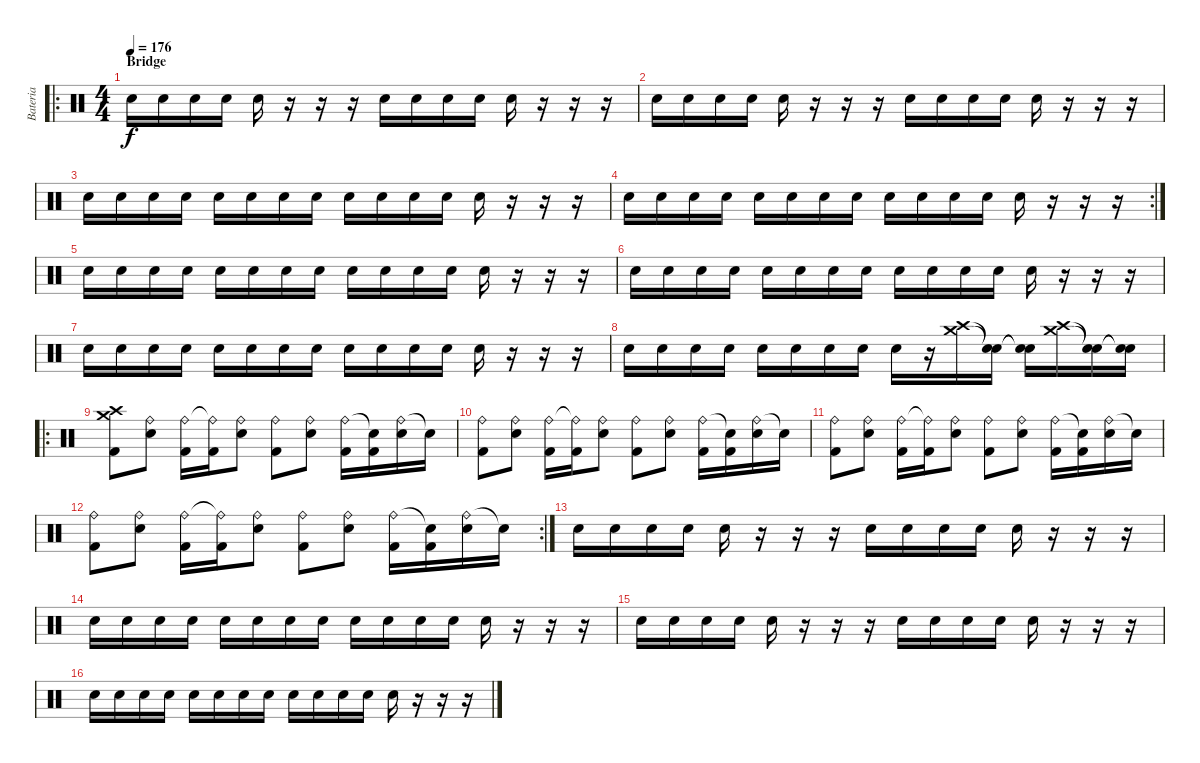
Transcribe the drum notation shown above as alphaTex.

\track ("Bateria" "Bateria") {instrument percussion}
\staff {score}
\articulation defaults
\ro
\ts (4 4)
\section ("" "Bridge")
\tempo 176
\clef neutral
\ks c "Electric Snare (hit)".16{dy f} "Electric Snare (hit)".16 "Electric Snare (hit)".16 "Electric Snare (hit)".16 "Electric Snare (hit)".16
r.16 r.16 r.16 "Electric Snare (hit)".16 "Electric Snare (hit)".16 "Electric Snare (hit)".16 "Electric Snare (hit)".16 "Electric Snare (hit)".16 r.16 r.16 r.16 |
"Electric Snare (hit)".16 "Electric Snare (hit)".16 "Electric Snare (hit)".16 "Electric Snare (hit)".16 "Electric Snare (hit)".16 r.16 r.16 r.16 "Electric Snare (hit)".16 "Electric Snare (hit)".16 "Electric Snare (hit)".16 "Electric Snare (hit)".16 "Electric Snare (hit)".16 r.16 r.16 r.16 |
"Electric Snare (hit)".16 "Electric Snare (hit)".16 "Electric Snare (hit)".16 "Electric Snare (hit)".16 "Electric Snare (hit)".16 "Electric Snare (hit)".16 "Electric Snare (hit)".16 "Electric Snare (hit)".16 "Electric Snare (hit)".16 "Electric Snare (hit)".16 "Electric Snare (hit)".16 "Electric Snare (hit)".16 "Electric Snare (hit)".16 r.16 r.16 r.16 |
\rc 2 "Electric Snare (hit)".16 "Electric Snare (hit)".16 "Electric Snare (hit)".16 "Electric Snare (hit)".16 "Electric Snare (hit)".16 "Electric Snare (hit)".16 "Electric Snare (hit)".16 "Electric Snare (hit)".16 "Electric Snare (hit)".16 "Electric Snare (hit)".16 "Electric Snare (hit)".16 "Electric Snare (hit)".16 "Electric Snare (hit)".16
r.16 r.16 r.16 |
"Electric Snare (hit)".16 "Electric Snare (hit)".16 "Electric Snare (hit)".16 "Electric Snare (hit)".16 "Electric Snare (hit)".16 "Electric Snare (hit)".16 "Electric Snare (hit)".16 "Electric Snare (hit)".16 "Electric Snare (hit)".16 "Electric Snare (hit)".16 "Electric Snare (hit)".16 "Electric Snare (hit)".16 "Electric Snare (hit)".16 r.16 r.16 r.16 |
"Electric Snare (hit)".16 "Electric Snare (hit)".16 "Electric Snare (hit)".16 "Electric Snare (hit)".16 "Electric Snare (hit)".16 "Electric Snare (hit)".16 "Electric Snare (hit)".16 "Electric Snare (hit)".16 "Electric Snare (hit)".16 "Electric Snare (hit)".16 "Electric Snare (hit)".16 "Electric Snare (hit)".16 "Electric Snare (hit)".16 r.16 r.16 r.16 |
"Electric Snare (hit)".16 "Electric Snare (hit)".16 "Electric Snare (hit)".16 "Electric Snare (hit)".16 "Electric Snare (hit)".16 "Electric Snare (hit)".16 "Electric Snare (hit)".16 "Electric Snare (hit)".16 "Electric Snare (hit)".16 "Electric Snare (hit)".16 "Electric Snare (hit)".16 "Electric Snare (hit)".16 "Electric Snare (hit)".16 r.16 r.16 r.16 |
"Electric Snare (hit)".16 "Electric Snare (hit)".16 "Electric Snare (hit)".16 "Electric Snare (hit)".16 "Electric Snare (hit)".16 "Electric Snare (hit)".16 "Electric Snare (hit)".16 "Electric Snare (hit)".16 "Electric Snare (hit)".16 r.16 ("Crash high (hit)" "Crash medium (hit)").16 ("Snare (hit)"{t} "Snare (hit)"{t}).16 ("Snare (hit)"{t} "Snare (hit)"{t}).16 ("Crash high (hit)" "Crash medium (hit)").16 ("Snare (hit)"{t} "Snare (hit)"{t}).16 ("Snare (hit)"{t} "Snare (hit)"{t}).16 |
\ro
("Crash medium (hit)" "Crash high (hit)" "Kick (hit) 2").8 ("Ride (bell)" "Electric Snare (hit)").8 ("Ride (bell)" "Kick (hit) 2").16 ("Ride (bell)"{t} "Kick (hit) 2").16 ("Ride (bell)" "Electric Snare (hit)").8 ("Ride (bell)" "Kick (hit) 2").8 ("Ride (bell)" "Electric Snare (hit)").8 ("Ride (bell)" "Kick (hit) 2").16 ("Snare (hit)"{t} "Kick (hit) 2").16 ("Ride (bell)" "Electric Snare (hit)").16 "Snare (hit)"{t}.16 |
("Ride (bell)" "Kick (hit) 2").8 ("Ride (bell)" "Electric Snare (hit)").8 ("Ride (bell)" "Kick (hit) 2").16 ("Ride (bell)"{t} "Kick (hit) 2").16 ("Ride (bell)" "Electric Snare (hit)").8 ("Ride (bell)" "Kick (hit) 2").8 ("Ride (bell)" "Electric Snare (hit)").8 ("Ride (bell)" "Kick (hit) 2").16 ("Snare (hit)"{t} "Kick (hit) 2").16 ("Ride (bell)" "Electric Snare (hit)").16 "Snare (hit)"{t}.16 |
("Ride (bell)" "Kick (hit) 2").8 ("Ride (bell)" "Electric Snare (hit)").8 ("Ride (bell)" "Kick (hit) 2").16 ("Ride (bell)"{t} "Kick (hit) 2").16 ("Ride (bell)" "Electric Snare (hit)").8 ("Ride (bell)" "Kick (hit) 2").8 ("Ride (bell)" "Electric Snare (hit)").8 ("Ride (bell)" "Kick (hit) 2").16 ("Snare (hit)"{t} "Kick (hit) 2").16 ("Ride (bell)" "Electric Snare (hit)").16 "Snare (hit)"{t}.16 |
\rc 2
("Ride (bell)" "Kick (hit) 2").8 ("Ride (bell)" "Electric Snare (hit)").8 ("Ride (bell)" "Kick (hit) 2").16 ("Ride (bell)"{t} "Kick (hit) 2").16 ("Ride (bell)" "Electric Snare (hit)").8 ("Ride (bell)" "Kick (hit) 2").8 ("Ride (bell)" "Electric Snare (hit)").8 ("Ride (bell)" "Kick (hit) 2").16 ("Snare (hit)"{t} "Kick (hit) 2").16 ("Ride (bell)" "Electric Snare (hit)").16 "Snare (hit)"{t}.16 |
"Electric Snare (hit)".16 "Electric Snare (hit)".16 "Electric Snare (hit)".16 "Electric Snare (hit)".16 "Electric Snare (hit)".16 r.16 r.16 r.16 "Electric Snare (hit)".16 "Electric Snare (hit)".16 "Electric Snare (hit)".16 "Electric Snare (hit)".16 "Electric Snare (hit)".16 r.16 r.16 r.16 |
"Electric Snare (hit)".16 "Electric Snare (hit)".16 "Electric Snare (hit)".16 "Electric Snare (hit)".16 "Electric Snare (hit)".16 "Electric Snare (hit)".16 "Electric Snare (hit)".16 "Electric Snare (hit)".16 "Electric Snare (hit)".16 "Electric Snare (hit)".16 "Electric Snare (hit)".16 "Electric Snare (hit)".16 "Electric Snare (hit)".16 r.16 r.16 r.16 |
"Electric Snare (hit)".16 "Electric Snare (hit)".16 "Electric Snare (hit)".16 "Electric Snare (hit)".16 "Electric Snare (hit)".16 r.16 r.16 r.16 "Electric Snare (hit)".16 "Electric Snare (hit)".16 "Electric Snare (hit)".16 "Electric Snare (hit)".16 "Electric Snare (hit)".16 r.16 r.16 r.16 |
"Electric Snare (hit)".16 "Electric Snare (hit)".16 "Electric Snare (hit)".16 "Electric Snare (hit)".16 "Electric Snare (hit)".16 "Electric Snare (hit)".16 "Electric Snare (hit)".16 "Electric Snare (hit)".16 "Electric Snare (hit)".16 "Electric Snare (hit)".16 "Electric Snare (hit)".16 "Electric Snare (hit)".16 "Electric Snare (hit)".16 r.16 r.16 r.16
